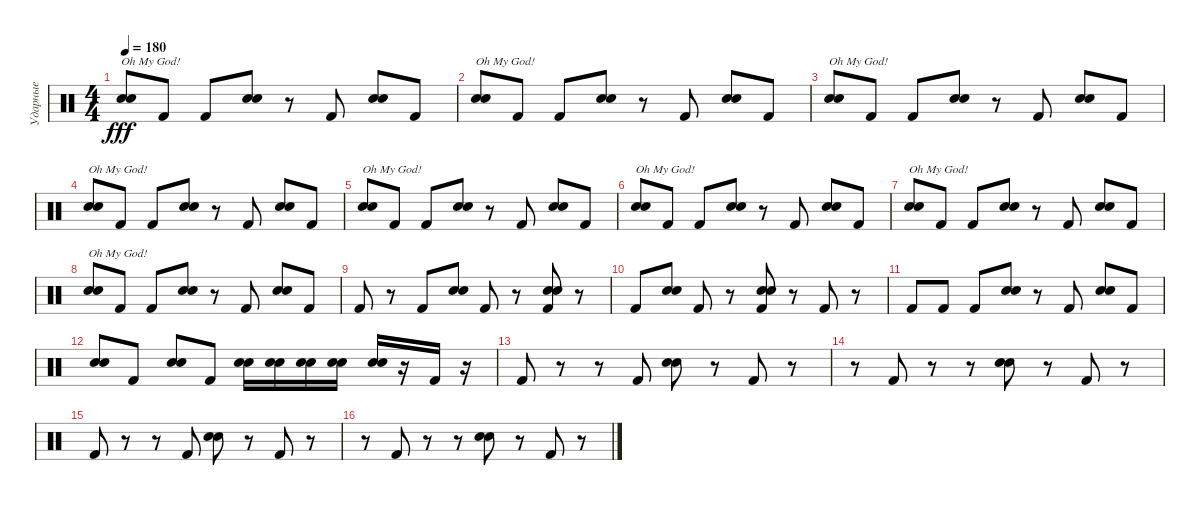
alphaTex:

\track ("Ударные" "Ударные") {instrument percussion}
\staff {score}
\articulation defaults
\ts (4 4)
\tempo 180
\clef neutral
\ks c
("Electric Snare (hit)" "Snare (hit) 2").8{txt "Oh My God!" dy fff} "Kick (hit) 2".8 "Kick (hit) 2".8 ("Electric Snare (hit)" "Snare (hit) 2").8 r.8 "Kick (hit) 2".8 ("Electric Snare (hit)" "Snare (hit) 2").8 "Kick (hit) 2".8 |
("Electric Snare (hit)" "Snare (hit) 2").8{txt "Oh My God!"} "Kick (hit) 2".8 "Kick (hit) 2".8 ("Electric Snare (hit)" "Snare (hit) 2").8 r.8 "Kick (hit) 2".8 ("Electric Snare (hit)" "Snare (hit) 2").8 "Kick (hit) 2".8 |
("Electric Snare (hit)" "Snare (hit) 2").8{txt "Oh My God!"} "Kick (hit) 2".8 "Kick (hit) 2".8 ("Electric Snare (hit)" "Snare (hit) 2").8 r.8 "Kick (hit) 2".8 ("Electric Snare (hit)" "Snare (hit) 2").8 "Kick (hit) 2".8 |
("Electric Snare (hit)" "Snare (hit) 2").8{txt "Oh My God!"} "Kick (hit) 2".8 "Kick (hit) 2".8 ("Electric Snare (hit)" "Snare (hit) 2").8 r.8 "Kick (hit) 2".8 ("Electric Snare (hit)" "Snare (hit) 2").8 "Kick (hit) 2".8 |
("Electric Snare (hit)" "Snare (hit) 2").8{txt "Oh My God!"} "Kick (hit) 2".8 "Kick (hit) 2".8 ("Electric Snare (hit)" "Snare (hit) 2").8 r.8 "Kick (hit) 2".8 ("Electric Snare (hit)" "Snare (hit) 2").8 "Kick (hit) 2".8 |
("Electric Snare (hit)" "Snare (hit) 2").8{txt "Oh My God!"} "Kick (hit) 2".8 "Kick (hit) 2".8 ("Electric Snare (hit)" "Snare (hit) 2").8 r.8 "Kick (hit) 2".8 ("Electric Snare (hit)" "Snare (hit) 2").8 "Kick (hit) 2".8 |
("Electric Snare (hit)" "Snare (hit) 2").8{txt "Oh My God!"} "Kick (hit) 2".8 "Kick (hit) 2".8 ("Electric Snare (hit)" "Snare (hit) 2").8 r.8 "Kick (hit) 2".8 ("Electric Snare (hit)" "Snare (hit) 2").8 "Kick (hit) 2".8 |
("Electric Snare (hit)" "Snare (hit) 2").8{txt "Oh My God!"} "Kick (hit) 2".8 "Kick (hit) 2".8 ("Electric Snare (hit)" "Snare (hit) 2").8 r.8 "Kick (hit) 2".8 ("Electric Snare (hit)" "Snare (hit) 2").8 "Kick (hit) 2".8 |
"Kick (hit) 2".8 r.8 "Kick (hit) 2".8 ("Electric Snare (hit)" "Snare (hit) 2").8 "Kick (hit) 2".8 r.8 ("Electric Snare (hit)" "Snare (hit) 2" "Kick (hit) 2").8 r.8 |
"Kick (hit) 2".8 ("Electric Snare (hit)" "Snare (hit) 2").8 "Kick (hit) 2".8 r.8 ("Electric Snare (hit)" "Snare (hit) 2" "Kick (hit) 2").8 r.8 "Kick (hit) 2".8 r.8 |
"Kick (hit) 2".8 "Kick (hit) 2".8 "Kick (hit) 2".8 ("Electric Snare (hit)" "Snare (hit) 2").8 r.8 "Kick (hit) 2".8 ("Electric Snare (hit)" "Snare (hit) 2").8 "Kick (hit) 2".8 |
("Electric Snare (hit)" "Snare (hit) 2").8 "Kick (hit) 2".8 ("Electric Snare (hit)" "Snare (hit) 2").8 "Kick (hit) 2".8 ("Electric Snare (hit)" "Snare (hit) 2").16 ("Electric Snare (hit)" "Snare (hit) 2").16 ("Electric Snare (hit)" "Snare (hit) 2").16 ("Electric Snare (hit)" "Snare (hit) 2").16 ("Electric Snare (hit)" "Snare (hit) 2").16 r.16 "Kick (hit) 2".16 r.16 |
"Kick (hit) 2".8 r.8 r.8 "Kick (hit) 2".8 ("Snare (hit) 2" "Electric Snare (hit)").8 r.8 "Kick (hit) 2".8 r.8 |
r.8 "Kick (hit) 2".8 r.8 r.8 ("Snare (hit) 2" "Electric Snare (hit)").8 r.8 "Kick (hit) 2".8 r.8 |
"Kick (hit) 2".8 r.8 r.8 "Kick (hit) 2".8 ("Snare (hit) 2" "Electric Snare (hit)").8 r.8 "Kick (hit) 2".8 r.8 |
r.8 "Kick (hit) 2".8 r.8 r.8 ("Snare (hit) 2" "Electric Snare (hit)").8 r.8 "Kick (hit) 2".8 r.8
